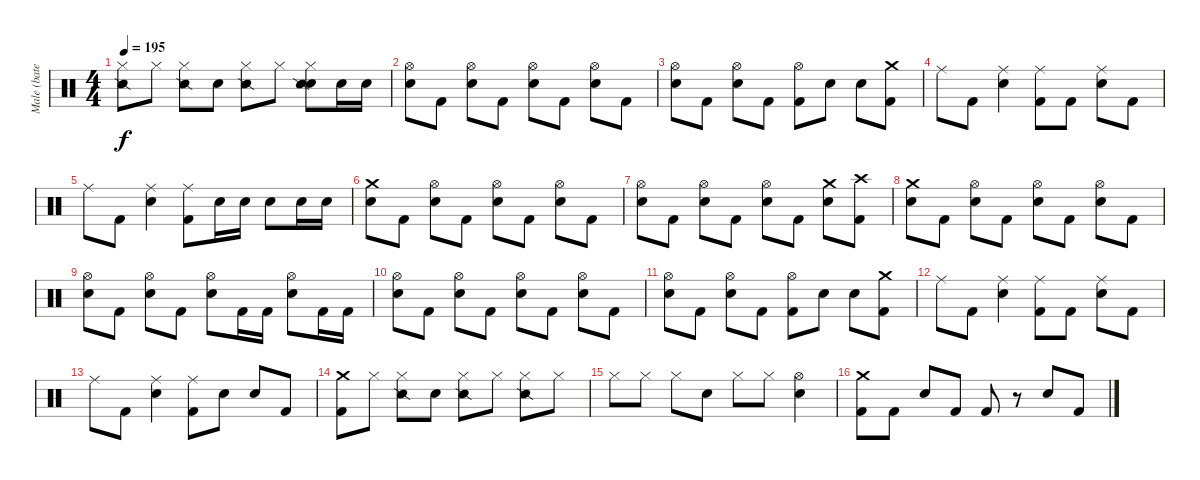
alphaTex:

\track ("Male (bateria)" "Male (bate") {instrument percussion}
\staff {score}
\articulation defaults
\ts (4 4)
\tempo 195
\clef neutral
\ks c
("Hi-Hat (closed)" "Snare (side stick) 2").8{dy f} "Hi-Hat (closed)".8 ("Hi-Hat (closed)" "Snare (side stick) 2").8 "Metronome (bell)".8 ("Hi-Hat (closed)" "Snare (side stick) 2").8 "Hi-Hat (closed)".8 ("Hi-Hat (closed)" "Electric Snare (hit)" "Snare (side stick) 2").8 "Electric Snare (hit)".16 "Electric Snare (hit)".16 |
("Electric Snare (hit)" "Hi-Hat (open)").8 "Kick (hit) 2".8 ("Electric Snare (hit)" "Hi-Hat (open)").8 "Kick (hit) 2".8 ("Electric Snare (hit)" "Hi-Hat (open)").8 "Kick (hit) 2".8 ("Electric Snare (hit)" "Hi-Hat (open)").8 "Kick (hit) 2".8 |
("Electric Snare (hit)" "Hi-Hat (open)").8 "Kick (hit) 2".8 ("Electric Snare (hit)" "Hi-Hat (open)").8 "Kick (hit) 2".8 ("Kick (hit) 2" "Hi-Hat (open)").8 "Electric Snare (hit)".8 "Electric Snare (hit)".8 ("Kick (hit) 2" "Crash medium (hit)").8 |
"Ride (middle)".8 "Kick (hit) 2".8 ("Electric Snare (hit)" "Ride (middle)").4 ("Kick (hit) 2" "Ride (middle)").8 "Kick (hit) 2".8 ("Electric Snare (hit)" "Ride (middle)").8 "Kick (hit) 2".8 |
"Ride (middle)".8 "Kick (hit) 2".8 ("Electric Snare (hit)" "Ride (middle)").4 ("Kick (hit) 2" "Ride (middle)").8 "Electric Snare (hit)".16 "Electric Snare (hit)".16 "Electric Snare (hit)".8 "Electric Snare (hit)".16 "Electric Snare (hit)".16 |
("Electric Snare (hit)" "Crash medium (hit)").8 "Kick (hit) 2".8 ("Electric Snare (hit)" "Hi-Hat (open)").8 "Kick (hit) 2".8 ("Electric Snare (hit)" "Hi-Hat (open)").8 "Kick (hit) 2".8 ("Electric Snare (hit)" "Hi-Hat (open)").8 "Kick (hit) 2".8 |
("Electric Snare (hit)" "Hi-Hat (open)").8 "Kick (hit) 2".8 ("Electric Snare (hit)" "Hi-Hat (open)").8 "Kick (hit) 2".8 ("Electric Snare (hit)" "Hi-Hat (open)").8 "Kick (hit) 2".8 ("Electric Snare (hit)" "Crash medium (hit)").8 ("Kick (hit) 2" "Crash high (hit)").8 |
("Electric Snare (hit)" "Crash medium (hit)").8 "Kick (hit) 2".8 ("Electric Snare (hit)" "Hi-Hat (open)").8 "Kick (hit) 2".8 ("Electric Snare (hit)" "Hi-Hat (open)").8 "Kick (hit) 2".8 ("Electric Snare (hit)" "Hi-Hat (open)").8 "Kick (hit) 2".8 |
("Electric Snare (hit)" "Hi-Hat (open)").8 "Kick (hit) 2".8 ("Electric Snare (hit)" "Hi-Hat (open)").8 "Kick (hit) 2".8 ("Electric Snare (hit)" "Hi-Hat (open)").8 "Kick (hit) 2".16 "Kick (hit) 2".16 ("Electric Snare (hit)" "Hi-Hat (open)").8 "Kick (hit) 2".16 "Kick (hit) 2".16 |
("Electric Snare (hit)" "Hi-Hat (open)").8 "Kick (hit) 2".8 ("Electric Snare (hit)" "Hi-Hat (open)").8 "Kick (hit) 2".8 ("Electric Snare (hit)" "Hi-Hat (open)").8 "Kick (hit) 2".8 ("Electric Snare (hit)" "Hi-Hat (open)").8 "Kick (hit) 2".8 |
("Electric Snare (hit)" "Hi-Hat (open)").8 "Kick (hit) 2".8 ("Electric Snare (hit)" "Hi-Hat (open)").8 "Kick (hit) 2".8 ("Kick (hit) 2" "Hi-Hat (open)").8 "Electric Snare (hit)".8 "Electric Snare (hit)".8 ("Kick (hit) 2" "Crash medium (hit)").8 |
"Ride (middle)".8 "Kick (hit) 2".8 ("Electric Snare (hit)" "Ride (middle)").4 ("Kick (hit) 2" "Ride (middle)").8 "Kick (hit) 2".8 ("Electric Snare (hit)" "Ride (middle)").8 "Kick (hit) 2".8 |
"Ride (middle)".8 "Kick (hit) 2".8 ("Electric Snare (hit)" "Ride (middle)").4 ("Kick (hit) 2" "Ride (middle)").8 "Electric Snare (hit)".8 "Electric Snare (hit)".8 "Kick (hit) 2".8 |
("Kick (hit) 2" "Crash medium (hit)").8 "Hi-Hat (closed)".8 ("Hi-Hat (closed)" "Snare (side stick) 2").8 "Metronome (bell)".8 ("Hi-Hat (closed)" "Snare (side stick) 2").8 "Hi-Hat (closed)".8 ("Hi-Hat (closed)" "Snare (side stick) 2").8 "Hi-Hat (closed)".8 |
"Hi-Hat (closed)".8 "Hi-Hat (closed)".8 "Hi-Hat (closed)".8 "Metronome (bell)".8 "Hi-Hat (closed)".8 "Hi-Hat (closed)".8 ("Electric Snare (hit)" "Hi-Hat (open)").4 |
("Kick (hit) 2" "Crash medium (hit)").8 "Kick (hit) 2".8 "Electric Snare (hit)".8 "Kick (hit) 2".8 "Kick (hit) 2".8 r.8 "Electric Snare (hit)".8 "Kick (hit) 2".8
